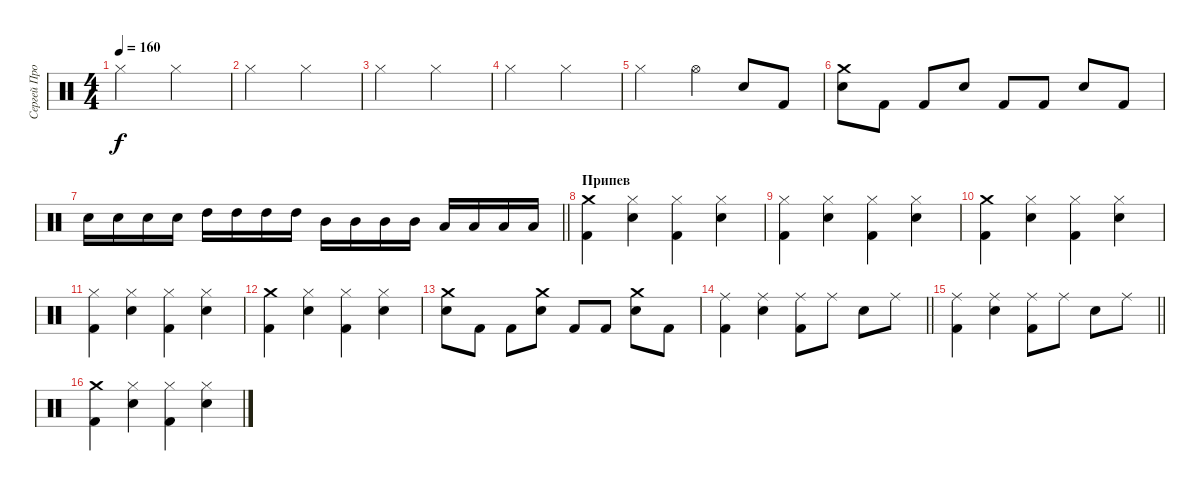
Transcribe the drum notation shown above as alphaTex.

\track ("Сергей Прокофьев" "Сергей Про") {instrument percussion}
\staff {score}
\articulation defaults
\ts (4 4)
\tempo 160
\clef neutral
\ks c "Hi-Hat (closed)".2{dy f} "Hi-Hat (closed)".2
|
"Hi-Hat (closed)".2 "Hi-Hat (closed)".2 |
"Hi-Hat (closed)".2 "Hi-Hat (closed)".2 |
"Hi-Hat (closed)".2 "Hi-Hat (closed)".2 |
"Hi-Hat (closed)".2 "Hi-Hat (open)".4 "Snare (hit) 2".8 "Kick (hit) 2".8 |
("Crash medium (hit)" "Snare (hit) 2").8 "Kick (hit) 2".8 "Kick (hit) 2".8 "Snare (hit) 2".8 "Kick (hit) 2".8 "Kick (hit) 2".8 "Snare (hit) 2".8 "Kick (hit) 2".8 |
\barLineRight lightlight "Snare (hit) 2".16 "Snare (hit) 2".16 "Snare (hit) 2".16 "Snare (hit) 2".16 "High Tom (hit)".16 "High Tom (hit)".16 "High Tom (hit)".16 "High Tom (hit)".16 "Mid Tom (hit)".16 "Mid Tom (hit)".16 "Mid Tom (hit)".16 "Mid Tom (hit)".16 "Low Tom (hit)".16 "Low Tom (hit)".16 "Low Tom (hit)".16 "Low Tom (hit)".16
|
\section ("" "Припев")
("Crash medium (hit)" "Kick (hit) 2").4 ("Hi-Hat (closed)" "Snare (hit) 2").4 ("Hi-Hat (closed)" "Kick (hit) 2").4 ("Hi-Hat (closed)" "Snare (hit) 2").4 |
("Hi-Hat (closed)" "Kick (hit) 2").4 ("Hi-Hat (closed)" "Snare (hit) 2").4 ("Hi-Hat (closed)" "Kick (hit) 2").4 ("Hi-Hat (closed)" "Snare (hit) 2").4 |
("Crash medium (hit)" "Kick (hit) 2").4 ("Hi-Hat (closed)" "Snare (hit) 2").4 ("Hi-Hat (closed)" "Kick (hit) 2").4 ("Hi-Hat (closed)" "Snare (hit) 2").4 |
("Hi-Hat (closed)" "Kick (hit) 2").4 ("Hi-Hat (closed)" "Snare (hit) 2").4 ("Hi-Hat (closed)" "Kick (hit) 2").4 ("Hi-Hat (closed)" "Snare (hit) 2").4 |
("Crash medium (hit)" "Kick (hit) 2").4 ("Hi-Hat (closed)" "Snare (hit) 2").4 ("Hi-Hat (closed)" "Kick (hit) 2").4 ("Hi-Hat (closed)" "Snare (hit) 2").4 |
("Crash medium (hit)" "Snare (hit) 2").8 "Kick (hit) 2".8 "Kick (hit) 2".8 ("Crash medium (hit)" "Snare (hit) 2").8 "Kick (hit) 2".8 "Kick (hit) 2".8 ("Crash medium (hit)" "Snare (hit) 2").8 "Kick (hit) 2".8 |
\barLineRight lightlight
("Ride (middle)" "Kick (hit) 2").4 ("Ride (middle)" "Snare (hit) 2").4 ("Ride (middle)" "Kick (hit) 2").8 "Ride (middle)".8 "Snare (hit) 2".8 "Ride (middle)".8 |
\barLineRight lightlight
("Ride (middle)" "Kick (hit) 2").4 ("Ride (middle)" "Snare (hit) 2").4 ("Ride (middle)" "Kick (hit) 2").8 "Ride (middle)".8 "Snare (hit) 2".8 "Ride (middle)".8 |
("Crash medium (hit)" "Kick (hit) 2").4 ("Hi-Hat (closed)" "Snare (hit) 2").4 ("Hi-Hat (closed)" "Kick (hit) 2").4 ("Hi-Hat (closed)" "Snare (hit) 2").4
